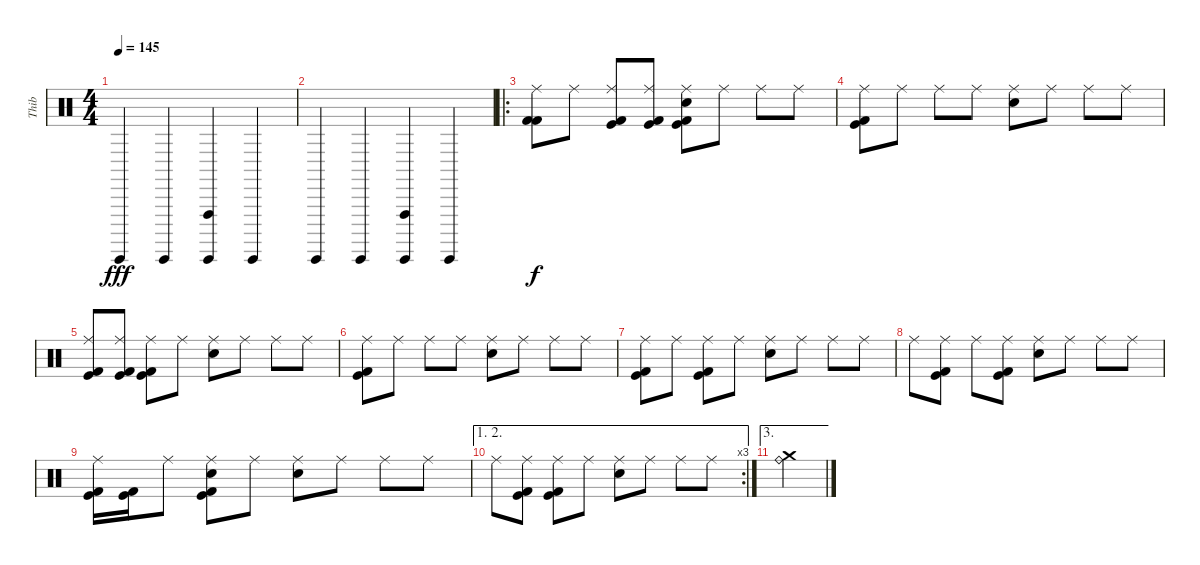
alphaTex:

\track ("Thib" "Thib") {instrument percussion}
\staff {score}
\articulation defaults
\ts (4 4)
\tempo 145
\clef neutral
\ks c "Guiro (hit)".4{dy fff} "Guiro (hit)".4
("Guiro (hit)" "Vibraslap (hit)").4 "Guiro (hit)".4 |
"Guiro (hit)".4 "Guiro (hit)".4 ("Guiro (hit)" "Vibraslap (hit)").4 "Guiro (hit)".4 |
\ro
("Kick (hit) 2" "Kick (hit) 2" "Ride (middle)").8{dy f} "Ride (middle)".8 ("Kick (hit) 2" "Kick (hit)" "Ride (middle)").8 ("Kick (hit)" "Kick (hit) 2" "Ride (middle)").8 ("Electric Snare (hit)" "Kick (hit) 2" "Kick (hit)" "Ride (middle)").8 "Ride (middle)".8 "Ride (middle)".8 "Ride (middle)".8 |
("Kick (hit)" "Kick (hit) 2" "Ride (middle)").8 "Ride (middle)".8 "Ride (middle)".8 "Ride (middle)".8 ("Electric Snare (hit)" "Ride (middle)").8 "Ride (middle)".8 "Ride (middle)".8 "Ride (middle)".8 |
("Kick (hit)" "Kick (hit) 2" "Ride (middle)").8 ("Kick (hit) 2" "Kick (hit)" "Ride (middle)").8 ("Kick (hit)" "Kick (hit) 2" "Ride (middle)").8 "Ride (middle)".8 ("Electric Snare (hit)" "Ride (middle)").8 "Ride (middle)".8 "Ride (middle)".8 "Ride (middle)".8 |
("Kick (hit)" "Kick (hit) 2" "Ride (middle)").8 "Ride (middle)".8 "Ride (middle)".8 "Ride (middle)".8 ("Electric Snare (hit)" "Ride (middle)").8 "Ride (middle)".8 "Ride (middle)".8 "Ride (middle)".8 |
("Kick (hit) 2" "Kick (hit)" "Ride (middle)").8 "Ride (middle)".8 ("Kick (hit)" "Kick (hit) 2" "Ride (middle)").8 "Ride (middle)".8 ("Electric Snare (hit)" "Ride (middle)").8 "Ride (middle)".8 "Ride (middle)".8 "Ride (middle)".8 |
"Ride (middle)".8 ("Kick (hit)" "Kick (hit) 2" "Ride (middle)").8 "Ride (middle)".8 ("Kick (hit) 2" "Kick (hit)" "Ride (middle)").8 ("Electric Snare (hit)" "Ride (middle)").8 "Ride (middle)".8 "Ride (middle)".8 "Ride (middle)".8 |
("Kick (hit) 2" "Kick (hit)" "Ride (middle)").16 ("Kick (hit)" "Kick (hit) 2").16 "Ride (middle)".8 ("Metronome (bell)" "Kick (hit) 2" "Kick (hit)" "Ride (middle)").8 "Ride (middle)".8 ("Electric Snare (hit)" "Ride (middle)").8 "Ride (middle)".8 "Ride (middle)".8 "Ride (middle)".8 |
\ae (1 2)
\rc 3 "Ride (middle)".8
("Kick (hit) 2" "Kick (hit)" "Ride (middle)").8 ("Kick (hit) 2" "Kick (hit)" "Ride (middle)").8 "Ride (middle)".8 ("Electric Snare (hit)" "Ride (middle)").8 "Ride (middle)".8 "Ride (middle)".8 "Ride (middle)".8 |
\ae 3
("Crash medium (hit)" "Ride (bell)").4
